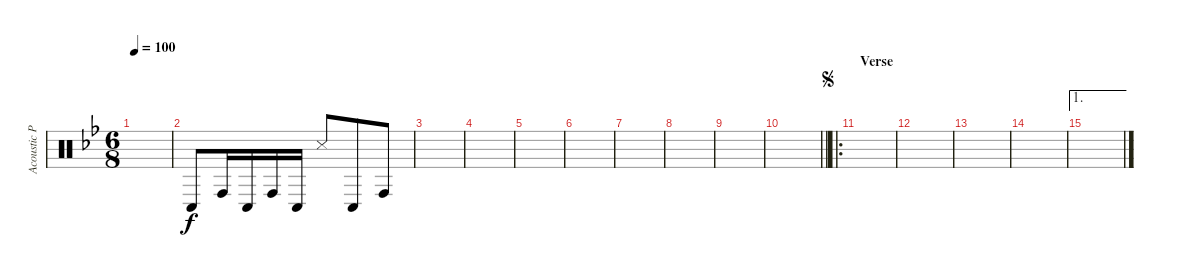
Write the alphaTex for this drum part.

\track ("Acoustic Percussion" "Acoustic P") {instrument percussion}
\staff {score}
\articulation defaults
\ts (6 8)
\tempo 100
\clef neutral
\ks bb
|
"Conga low (hit)".8{dy f} "Conga high (hit)".16 "Conga low (hit)".16 "Conga high (hit)".16 "Conga low (hit)".16 "Metronome (hit)".8 "Conga low (hit)".8 "Conga high (hit)".8 |
|
|
|
|
|
|
|
\barLineRight lightlight
|
\ro
\section ("" "Verse")
\jump segno
|
|
|
|
\ae 1
